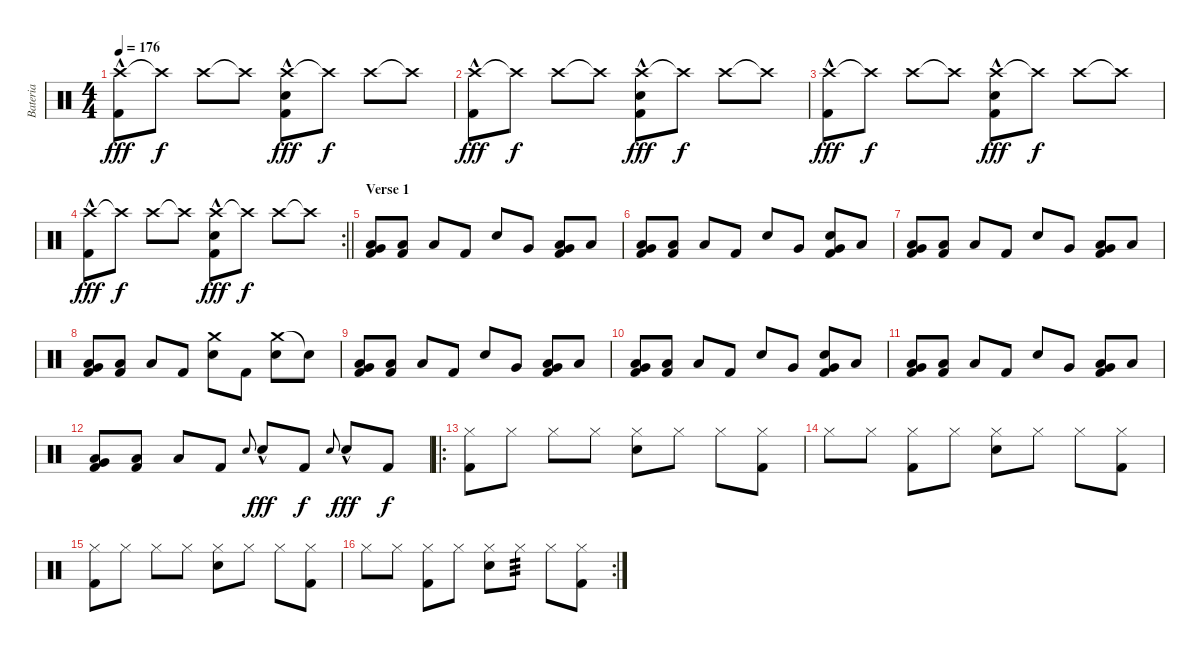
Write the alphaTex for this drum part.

\track ("Bateria" "Bateria") {instrument percussion}
\staff {score}
\articulation defaults
\ts (4 4)
\tempo 176
\clef neutral
\ks c
("Crash high (hit)" "Kick (hit) 2"{hac}).8{dy fff} "Crash high (hit)"{t}.8{dy f} "Crash high (hit)".8 "Crash high (hit)"{t}.8 ("Crash high (hit)" "Electric Snare (hit)"{hac} "Kick (hit) 2"{hac}).8{dy fff} "Crash high (hit)"{t}.8{dy f} "Crash high (hit)".8 "Crash high (hit)"{t}.8 |
("Crash high (hit)" "Kick (hit) 2"{hac}).8{dy fff} "Crash high (hit)"{t}.8{dy f} "Crash high (hit)".8 "Crash high (hit)"{t}.8 ("Crash high (hit)" "Electric Snare (hit)"{hac} "Kick (hit) 2"{hac}).8{dy fff} "Crash high (hit)"{t}.8{dy f} "Crash high (hit)".8 "Crash high (hit)"{t}.8 |
("Crash high (hit)" "Kick (hit) 2"{hac}).8{dy fff} "Crash high (hit)"{t}.8{dy f} "Crash high (hit)".8 "Crash high (hit)"{t}.8 ("Crash high (hit)" "Electric Snare (hit)"{hac} "Kick (hit) 2"{hac}).8{dy fff} "Crash high (hit)"{t}.8{dy f} "Crash high (hit)".8 "Crash high (hit)"{t}.8 |
\rc 2
\barLineRight lightlight
("Crash high (hit)" "Kick (hit) 2"{hac}).8{dy fff} "Crash high (hit)"{t}.8{dy f} "Crash high (hit)".8 "Crash high (hit)"{t}.8 ("Crash high (hit)" "Electric Snare (hit)"{hac} "Kick (hit) 2"{hac}).8{dy fff} "Crash high (hit)"{t}.8{dy f} "Crash high (hit)".8 "Crash high (hit)"{t}.8 |
\section ("" "Verse 1")
("Low Floor Tom (hit)" "Very Low Tom (hit)" "Kick (hit) 2").8 ("Low Floor Tom (hit)" "Kick (hit) 2").8 "Low Floor Tom (hit)".8 "Kick (hit) 2".8 "Electric Snare (hit)".8 "Very Low Tom (hit)".8 ("Low Floor Tom (hit)" "Very Low Tom (hit)" "Kick (hit) 2").8 "Low Floor Tom (hit)".8 |
("Low Floor Tom (hit)" "Very Low Tom (hit)" "Kick (hit) 2").8 ("Low Floor Tom (hit)" "Kick (hit) 2").8 "Low Floor Tom (hit)".8 "Kick (hit) 2".8 "Electric Snare (hit)".8 "Very Low Tom (hit)".8 ("Electric Snare (hit)" "Very Low Tom (hit)" "Kick (hit) 2").8 "Low Floor Tom (hit)".8 |
("Low Floor Tom (hit)" "Very Low Tom (hit)" "Kick (hit) 2").8 ("Low Floor Tom (hit)" "Kick (hit) 2").8 "Low Floor Tom (hit)".8 "Kick (hit) 2".8 "Electric Snare (hit)".8 "Very Low Tom (hit)".8 ("Low Floor Tom (hit)" "Very Low Tom (hit)" "Kick (hit) 2").8 "Low Floor Tom (hit)".8 |
("Low Floor Tom (hit)" "Very Low Tom (hit)" "Kick (hit) 2").8 ("Low Floor Tom (hit)" "Kick (hit) 2").8 "Low Floor Tom (hit)".8 "Kick (hit) 2".8 ("Crash medium (hit)" "Electric Snare (hit)").8 "Kick (hit) 2".8 ("Crash medium (hit)" "Electric Snare (hit)").8 "Snare (hit)"{t}.8 |
("Low Floor Tom (hit)" "Very Low Tom (hit)" "Kick (hit) 2").8 ("Low Floor Tom (hit)" "Kick (hit) 2").8 "Low Floor Tom (hit)".8 "Kick (hit) 2".8 "Electric Snare (hit)".8 "Very Low Tom (hit)".8 ("Low Floor Tom (hit)" "Very Low Tom (hit)" "Kick (hit) 2").8 "Low Floor Tom (hit)".8 |
("Low Floor Tom (hit)" "Very Low Tom (hit)" "Kick (hit) 2").8 ("Low Floor Tom (hit)" "Kick (hit) 2").8 "Low Floor Tom (hit)".8 "Kick (hit) 2".8 "Electric Snare (hit)".8 "Very Low Tom (hit)".8 ("Electric Snare (hit)" "Very Low Tom (hit)" "Kick (hit) 2").8 "Low Floor Tom (hit)".8 |
("Low Floor Tom (hit)" "Very Low Tom (hit)" "Kick (hit) 2").8 ("Low Floor Tom (hit)" "Kick (hit) 2").8 "Low Floor Tom (hit)".8 "Kick (hit) 2".8 "Electric Snare (hit)".8 "Very Low Tom (hit)".8 ("Low Floor Tom (hit)" "Very Low Tom (hit)" "Kick (hit) 2").8 "Low Floor Tom (hit)".8 |
("Low Floor Tom (hit)" "Very Low Tom (hit)" "Kick (hit) 2").8 ("Low Floor Tom (hit)" "Kick (hit) 2").8 "Low Floor Tom (hit)".8 "Kick (hit) 2".8 "Electric Snare (hit)".8{gr onbeat} "Electric Snare (hit)"{hac}.8{dy fff} "Kick (hit) 2".8{dy f} "Electric Snare (hit)".8{gr onbeat} "Electric Snare (hit)"{hac}.8{dy fff} "Kick (hit) 2".8{dy f} |
\ro
("Hi-Hat (closed)" "Kick (hit) 2").8 "Hi-Hat (closed)".8 "Hi-Hat (closed)".8 "Hi-Hat (closed)".8 ("Hi-Hat (closed)" "Electric Snare (hit)").8 "Hi-Hat (closed)".8 "Hi-Hat (closed)".8 ("Hi-Hat (closed)" "Kick (hit) 2").8 |
"Hi-Hat (closed)".8 "Hi-Hat (closed)".8 ("Hi-Hat (closed)" "Kick (hit) 2").8 "Hi-Hat (closed)".8 ("Hi-Hat (closed)" "Electric Snare (hit)").8 "Hi-Hat (closed)".8 "Hi-Hat (closed)".8 ("Hi-Hat (closed)" "Kick (hit) 2").8 |
("Hi-Hat (closed)" "Kick (hit) 2").8 "Hi-Hat (closed)".8 "Hi-Hat (closed)".8 "Hi-Hat (closed)".8 ("Hi-Hat (closed)" "Electric Snare (hit)").8 "Hi-Hat (closed)".8 "Hi-Hat (closed)".8 ("Hi-Hat (closed)" "Kick (hit) 2").8 |
\rc 2 "Hi-Hat (closed)".8 "Hi-Hat (closed)".8
("Hi-Hat (closed)" "Kick (hit) 2").8 "Hi-Hat (closed)".8 ("Hi-Hat (closed)" "Electric Snare (hit)").8 "Hi-Hat (closed)".8{tp 3} "Hi-Hat (closed)".8 ("Hi-Hat (closed)" "Kick (hit) 2").8
